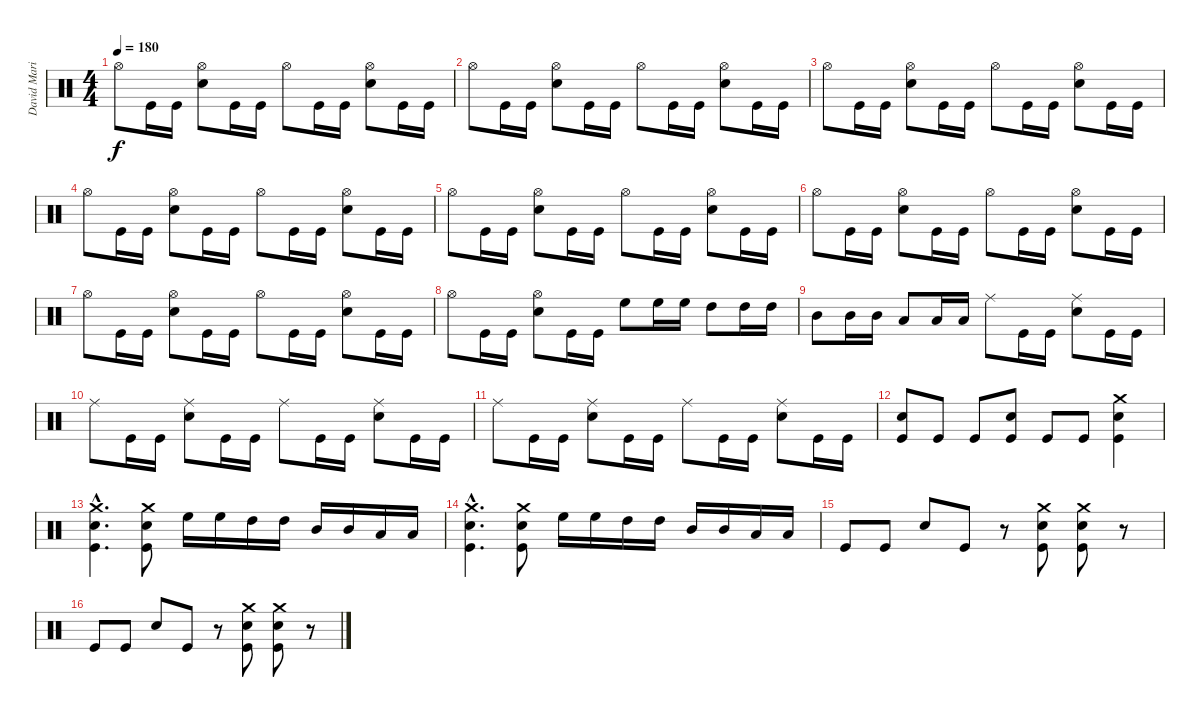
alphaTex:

\track ("David Marinero" "David Mari") {instrument percussion}
\staff {score}
\articulation defaults
\ts (4 4)
\tempo 180
\clef neutral
\ks c "Hi-Hat (open)".8{dy f} "Kick (hit)".16 "Kick (hit)".16
("Hi-Hat (open)" "Snare (hit) 2").8 "Kick (hit)".16 "Kick (hit)".16 "Hi-Hat (open)".8 "Kick (hit)".16 "Kick (hit)".16 ("Hi-Hat (open)" "Snare (hit) 2").8 "Kick (hit)".16 "Kick (hit)".16 |
"Hi-Hat (open)".8 "Kick (hit)".16 "Kick (hit)".16 ("Hi-Hat (open)" "Snare (hit) 2").8 "Kick (hit)".16 "Kick (hit)".16 "Hi-Hat (open)".8 "Kick (hit)".16 "Kick (hit)".16 ("Hi-Hat (open)" "Snare (hit) 2").8 "Kick (hit)".16 "Kick (hit)".16 |
"Hi-Hat (open)".8 "Kick (hit)".16 "Kick (hit)".16 ("Hi-Hat (open)" "Snare (hit) 2").8 "Kick (hit)".16 "Kick (hit)".16 "Hi-Hat (open)".8 "Kick (hit)".16 "Kick (hit)".16 ("Hi-Hat (open)" "Snare (hit) 2").8 "Kick (hit)".16 "Kick (hit)".16 |
"Hi-Hat (open)".8 "Kick (hit)".16 "Kick (hit)".16 ("Hi-Hat (open)" "Snare (hit) 2").8 "Kick (hit)".16 "Kick (hit)".16 "Hi-Hat (open)".8 "Kick (hit)".16 "Kick (hit)".16 ("Hi-Hat (open)" "Snare (hit) 2").8 "Kick (hit)".16 "Kick (hit)".16 |
"Hi-Hat (open)".8 "Kick (hit)".16 "Kick (hit)".16 ("Hi-Hat (open)" "Snare (hit) 2").8 "Kick (hit)".16 "Kick (hit)".16 "Hi-Hat (open)".8 "Kick (hit)".16 "Kick (hit)".16 ("Hi-Hat (open)" "Snare (hit) 2").8 "Kick (hit)".16 "Kick (hit)".16 |
"Hi-Hat (open)".8 "Kick (hit)".16 "Kick (hit)".16 ("Hi-Hat (open)" "Snare (hit) 2").8 "Kick (hit)".16 "Kick (hit)".16 "Hi-Hat (open)".8 "Kick (hit)".16 "Kick (hit)".16 ("Hi-Hat (open)" "Snare (hit) 2").8 "Kick (hit)".16 "Kick (hit)".16 |
"Hi-Hat (open)".8 "Kick (hit)".16 "Kick (hit)".16 ("Hi-Hat (open)" "Snare (hit) 2").8 "Kick (hit)".16 "Kick (hit)".16 "Hi-Hat (open)".8 "Kick (hit)".16 "Kick (hit)".16 ("Hi-Hat (open)" "Snare (hit) 2").8 "Kick (hit)".16 "Kick (hit)".16 |
"Hi-Hat (open)".8 "Kick (hit)".16 "Kick (hit)".16 ("Hi-Hat (open)" "Snare (hit) 2").8 "Kick (hit)".16 "Kick (hit)".16 "High Floor Tom (hit)".8 "High Floor Tom (hit)".16 "High Floor Tom (hit)".16 "High Tom (hit)".8 "High Tom (hit)".16 "High Tom (hit)".16 |
"Mid Tom (hit)".8 "Mid Tom (hit)".16 "Mid Tom (hit)".16 "Low Tom (hit)".8 "Low Tom (hit)".16 "Low Tom (hit)".16 "Ride (middle)".8 "Kick (hit)".16 "Kick (hit)".16 ("Ride (middle)" "Snare (hit) 2").8 "Kick (hit)".16 "Kick (hit)".16 |
"Ride (middle)".8 "Kick (hit)".16 "Kick (hit)".16 ("Ride (middle)" "Snare (hit) 2").8 "Kick (hit)".16 "Kick (hit)".16 "Ride (middle)".8 "Kick (hit)".16 "Kick (hit)".16 ("Ride (middle)" "Snare (hit) 2").8 "Kick (hit)".16 "Kick (hit)".16 |
"Ride (middle)".8 "Kick (hit)".16 "Kick (hit)".16 ("Ride (middle)" "Snare (hit) 2").8 "Kick (hit)".16 "Kick (hit)".16 "Ride (middle)".8 "Kick (hit)".16 "Kick (hit)".16 ("Ride (middle)" "Snare (hit) 2").8 "Kick (hit)".16 "Kick (hit)".16 |
("Snare (hit) 2" "Kick (hit)").8 "Kick (hit)".8 "Kick (hit)".8 ("Snare (hit) 2" "Kick (hit)").8 "Kick (hit)".8 "Kick (hit)".8 ("Crash medium (hit)" "Snare (hit) 2" "Kick (hit)").4 |
("Crash medium (hit)"{hac} "Snare (hit) 2"{hac} "Kick (hit)"{hac}).4{d} ("Crash medium (hit)" "Snare (hit) 2" "Kick (hit)").8 "High Floor Tom (hit)".16 "High Floor Tom (hit)".16 "High Tom (hit)".16 "High Tom (hit)".16 "Mid Tom (hit)".16 "Mid Tom (hit)".16 "Low Tom (hit)".16 "Low Tom (hit)".16 |
("Crash medium (hit)"{hac} "Snare (hit) 2"{hac} "Kick (hit)"{hac}).4{d} ("Crash medium (hit)" "Snare (hit) 2" "Kick (hit)").8 "High Floor Tom (hit)".16 "High Floor Tom (hit)".16 "High Tom (hit)".16 "High Tom (hit)".16 "Mid Tom (hit)".16 "Mid Tom (hit)".16 "Low Tom (hit)".16 "Low Tom (hit)".16 |
"Kick (hit)".8 "Kick (hit)".8 "Snare (hit) 2".8 "Kick (hit)".8 r.8 ("Crash medium (hit)" "Snare (hit) 2" "Kick (hit)").8 ("Crash medium (hit)" "Snare (hit) 2" "Kick (hit)").8 r.8 |
"Kick (hit)".8 "Kick (hit)".8 "Snare (hit) 2".8 "Kick (hit)".8 r.8 ("Crash medium (hit)" "Snare (hit) 2" "Kick (hit)").8 ("Crash medium (hit)" "Snare (hit) 2" "Kick (hit)").8 r.8
